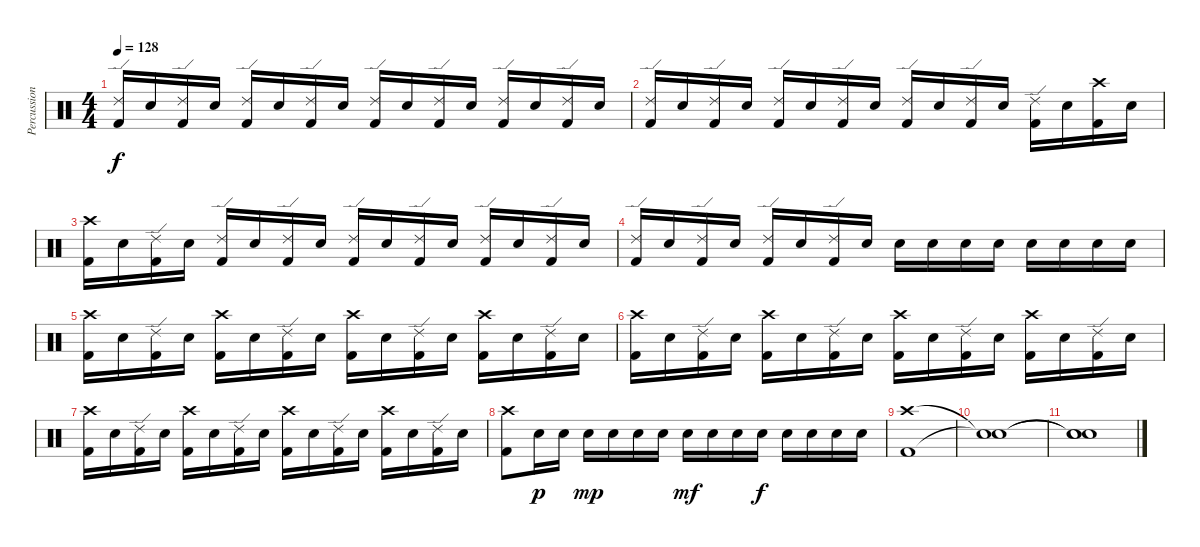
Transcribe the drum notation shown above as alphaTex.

\track ("Percussion" "Percussion") {instrument percussion}
\staff {score}
\articulation defaults
\ts (4 4)
\tempo 128
\clef neutral
\ks c
("Ride (edge) 2" "Kick (hit) 2").16{dy f} "Electric Snare (hit)".16 ("Ride (edge) 2" "Kick (hit) 2").16 "Electric Snare (hit)".16 ("Ride (edge) 2" "Kick (hit) 2").16 "Electric Snare (hit)".16 ("Ride (edge) 2" "Kick (hit) 2").16 "Electric Snare (hit)".16 ("Ride (edge) 2" "Kick (hit) 2").16 "Electric Snare (hit)".16 ("Ride (edge) 2" "Kick (hit) 2").16 "Electric Snare (hit)".16 ("Ride (edge) 2" "Kick (hit) 2").16 "Electric Snare (hit)".16 ("Ride (edge) 2" "Kick (hit) 2").16 "Electric Snare (hit)".16 |
("Ride (edge) 2" "Kick (hit) 2").16 "Electric Snare (hit)".16 ("Ride (edge) 2" "Kick (hit) 2").16 "Electric Snare (hit)".16 ("Ride (edge) 2" "Kick (hit) 2").16 "Electric Snare (hit)".16 ("Ride (edge) 2" "Kick (hit) 2").16 "Electric Snare (hit)".16 ("Ride (edge) 2" "Kick (hit) 2").16 "Electric Snare (hit)".16 ("Ride (edge) 2" "Kick (hit) 2").16 "Electric Snare (hit)".16 ("Ride (edge) 2" "Kick (hit) 2").16 "Electric Snare (hit)".16 ("Crash high (hit)" "Kick (hit) 2").16 "Electric Snare (hit)".16 |
("Crash high (hit)" "Kick (hit) 2").16 "Electric Snare (hit)".16 ("Ride (edge) 2" "Kick (hit) 2").16 "Electric Snare (hit)".16 ("Ride (edge) 2" "Kick (hit) 2").16 "Electric Snare (hit)".16 ("Ride (edge) 2" "Kick (hit) 2").16 "Electric Snare (hit)".16 ("Ride (edge) 2" "Kick (hit) 2").16 "Electric Snare (hit)".16 ("Ride (edge) 2" "Kick (hit) 2").16 "Electric Snare (hit)".16 ("Ride (edge) 2" "Kick (hit) 2").16 "Electric Snare (hit)".16 ("Ride (edge) 2" "Kick (hit) 2").16 "Electric Snare (hit)".16 |
("Ride (edge) 2" "Kick (hit) 2").16 "Electric Snare (hit)".16 ("Ride (edge) 2" "Kick (hit) 2").16 "Electric Snare (hit)".16 ("Ride (edge) 2" "Kick (hit) 2").16 "Electric Snare (hit)".16 ("Ride (edge) 2" "Kick (hit) 2").16 "Electric Snare (hit)".16 "Electric Snare (hit)".16 "Electric Snare (hit)".16 "Electric Snare (hit)".16 "Electric Snare (hit)".16 "Electric Snare (hit)".16 "Electric Snare (hit)".16 "Electric Snare (hit)".16 "Electric Snare (hit)".16 |
("Crash high (hit)" "Kick (hit) 2").16 "Electric Snare (hit)".16 ("Ride (edge) 2" "Kick (hit) 2").16 "Electric Snare (hit)".16 ("Crash high (hit)" "Kick (hit) 2").16 "Electric Snare (hit)".16 ("Ride (edge) 2" "Kick (hit) 2").16 "Electric Snare (hit)".16 ("Crash high (hit)" "Kick (hit) 2").16 "Electric Snare (hit)".16 ("Ride (edge) 2" "Kick (hit) 2").16 "Electric Snare (hit)".16 ("Crash high (hit)" "Kick (hit) 2").16 "Electric Snare (hit)".16 ("Ride (edge) 2" "Kick (hit) 2").16 "Electric Snare (hit)".16 |
("Crash high (hit)" "Kick (hit) 2").16 "Electric Snare (hit)".16 ("Ride (edge) 2" "Kick (hit) 2").16 "Electric Snare (hit)".16 ("Crash high (hit)" "Kick (hit) 2").16 "Electric Snare (hit)".16 ("Ride (edge) 2" "Kick (hit) 2").16 "Electric Snare (hit)".16 ("Crash high (hit)" "Kick (hit) 2").16 "Electric Snare (hit)".16 ("Ride (edge) 2" "Kick (hit) 2").16 "Electric Snare (hit)".16 ("Crash high (hit)" "Kick (hit) 2").16 "Electric Snare (hit)".16 ("Ride (edge) 2" "Kick (hit) 2").16 "Electric Snare (hit)".16 |
("Crash high (hit)" "Kick (hit) 2").16 "Electric Snare (hit)".16 ("Ride (edge) 2" "Kick (hit) 2").16 "Electric Snare (hit)".16 ("Crash high (hit)" "Kick (hit) 2").16 "Electric Snare (hit)".16 ("Ride (edge) 2" "Kick (hit) 2").16 "Electric Snare (hit)".16 ("Crash high (hit)" "Kick (hit) 2").16 "Electric Snare (hit)".16 ("Ride (edge) 2" "Kick (hit) 2").16 "Electric Snare (hit)".16 ("Crash high (hit)" "Kick (hit) 2").16 "Electric Snare (hit)".16 ("Ride (edge) 2" "Kick (hit) 2").16 "Electric Snare (hit)".16 |
("Crash high (hit)" "Kick (hit) 2").8 "Electric Snare (hit)".16{dy p} "Electric Snare (hit)".16 "Electric Snare (hit)".16{dy mp} "Electric Snare (hit)".16 "Electric Snare (hit)".16 "Electric Snare (hit)".16 "Electric Snare (hit)".16{dy mf} "Electric Snare (hit)".16 "Electric Snare (hit)".16 "Electric Snare (hit)".16{dy f} "Electric Snare (hit)".16 "Electric Snare (hit)".16 "Electric Snare (hit)".16 "Electric Snare (hit)".16 |
("Crash high (hit)" "Kick (hit) 2").1 |
("Snare (hit)"{t} "Snare (hit)"{t}).1 |
("Snare (hit)"{t} "Snare (hit)"{t} "Snare (hit)").1
